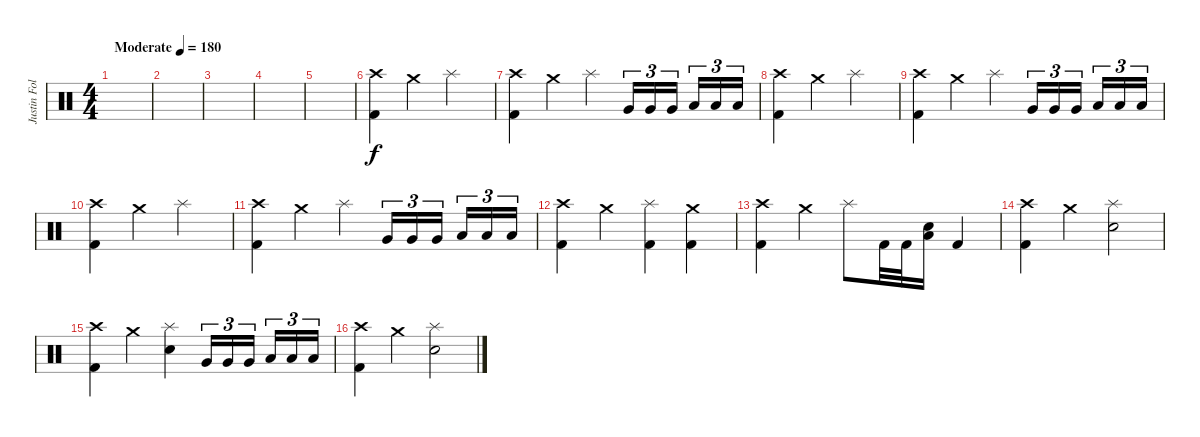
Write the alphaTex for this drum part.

\track ("Justin Foley" "Justin Fol") {instrument percussion}
\staff {score}
\articulation defaults
\ts (4 4)
\tempo (180 "Moderate")
\tempo 90
\tempo (180 "Moderate")
\clef neutral
\ks c
|
|
|
|
|
("Crash high (hit)" "Kick (hit) 2").4 "Crash medium (hit)".4 "Splash (hit)".2 |
("Crash high (hit)" "Kick (hit) 2").4 "Crash medium (hit)".4 "Splash (hit)".4 "Very Low Tom (hit)".16{tu (3 2)} "Very Low Tom (hit)".16{tu (3 2)} "Very Low Tom (hit)".16{tu (3 2) beam splitsecondary} "Low Floor Tom (hit)".16{tu (3 2)} "Low Floor Tom (hit)".16{tu (3 2)} "Low Floor Tom (hit)".16{tu (3 2)} |
("Crash high (hit)" "Kick (hit) 2").4 "Crash medium (hit)".4 "Splash (hit)".2 |
("Crash high (hit)" "Kick (hit) 2").4 "Crash medium (hit)".4 "Splash (hit)".4 "Very Low Tom (hit)".16{tu (3 2)} "Very Low Tom (hit)".16{tu (3 2)} "Very Low Tom (hit)".16{tu (3 2) beam splitsecondary} "Low Floor Tom (hit)".16{tu (3 2)} "Low Floor Tom (hit)".16{tu (3 2)} "Low Floor Tom (hit)".16{tu (3 2)} |
("Crash high (hit)" "Kick (hit) 2").4 "Crash medium (hit)".4 "Splash (hit)".2 |
("Crash high (hit)" "Kick (hit) 2").4 "Crash medium (hit)".4 "Splash (hit)".4 "Very Low Tom (hit)".16{tu (3 2)} "Very Low Tom (hit)".16{tu (3 2)} "Very Low Tom (hit)".16{tu (3 2) beam splitsecondary} "Low Floor Tom (hit)".16{tu (3 2)} "Low Floor Tom (hit)".16{tu (3 2)} "Low Floor Tom (hit)".16{tu (3 2)} |
("Crash high (hit)" "Kick (hit) 2").4 "Crash medium (hit)".4 ("Splash (hit)" "Kick (hit) 2").4 ("Crash medium (hit)" "Kick (hit) 2").4 |
("Crash high (hit)" "Kick (hit) 2").4 "Crash medium (hit)".4 "Splash (hit)".8 "Kick (hit) 2".32 "Kick (hit) 2".32 ("Electric Snare (hit)" "Low Floor Tom (hit)").16 "Kick (hit) 2".4 |
("Crash high (hit)" "Kick (hit) 2").4 "Crash medium (hit)".4 ("Splash (hit)" "Electric Snare (hit)").2 |
("Crash high (hit)" "Kick (hit) 2").4 "Crash medium (hit)".4 ("Splash (hit)" "Electric Snare (hit)").4 "Very Low Tom (hit)".16{tu (3 2)} "Very Low Tom (hit)".16{tu (3 2)} "Very Low Tom (hit)".16{tu (3 2) beam splitsecondary} "Low Floor Tom (hit)".16{tu (3 2)} "Low Floor Tom (hit)".16{tu (3 2)} "Low Floor Tom (hit)".16{tu (3 2)} |
("Crash high (hit)" "Kick (hit) 2").4 "Crash medium (hit)".4 ("Splash (hit)" "Electric Snare (hit)").2
